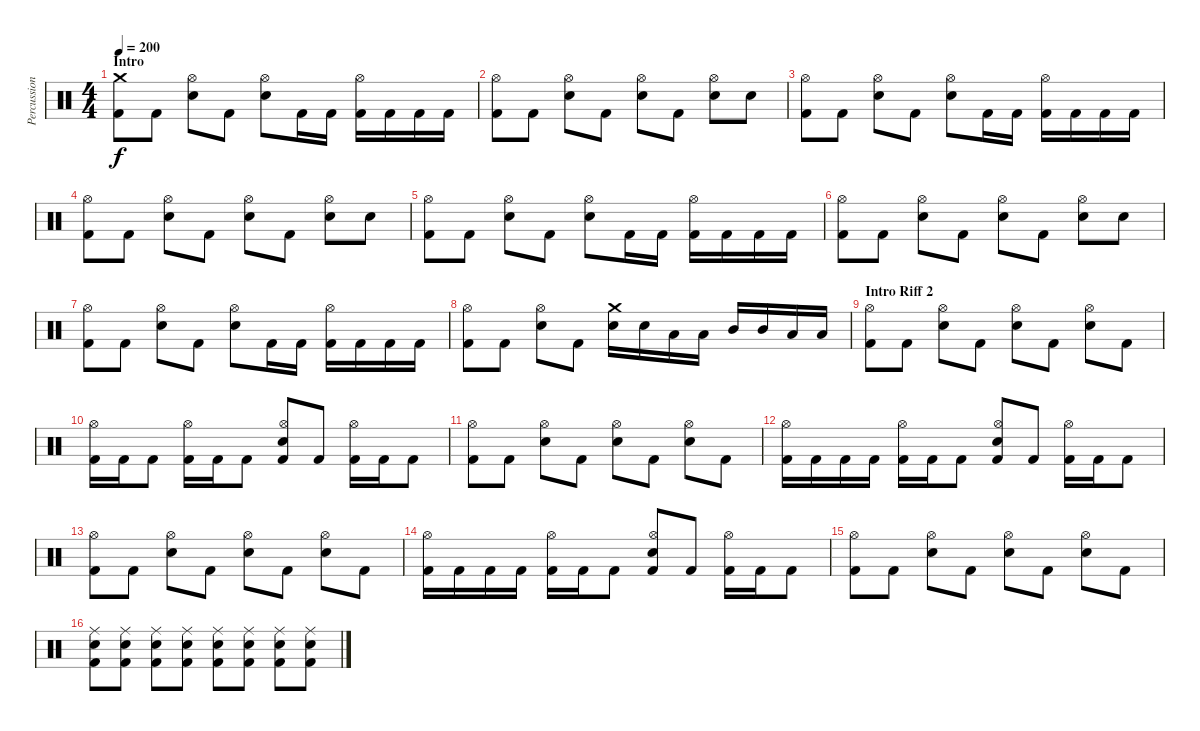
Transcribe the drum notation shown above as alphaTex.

\track ("Percussion" "Percussion") {instrument percussion}
\staff {score}
\articulation defaults
\ts (4 4)
\section ("" "Intro")
\tempo 200
\clef neutral
\ks c
("Crash medium (hit)" "Kick (hit) 2").8{dy f} "Kick (hit) 2".8 ("Hi-Hat (open)" "Electric Snare (hit)").8 "Kick (hit) 2".8 ("Hi-Hat (open)" "Electric Snare (hit)").8 "Kick (hit) 2".16 "Kick (hit) 2".16 ("Hi-Hat (open)" "Kick (hit) 2").16 "Kick (hit) 2".16 "Kick (hit) 2".16 "Kick (hit) 2".16 |
("Hi-Hat (open)" "Kick (hit) 2").8 "Kick (hit) 2".8 ("Hi-Hat (open)" "Electric Snare (hit)").8 "Kick (hit) 2".8 ("Hi-Hat (open)" "Electric Snare (hit)").8 "Kick (hit) 2".8 ("Hi-Hat (open)" "Electric Snare (hit)").8 "Electric Snare (hit)".8 |
("Hi-Hat (open)" "Kick (hit) 2").8 "Kick (hit) 2".8 ("Hi-Hat (open)" "Electric Snare (hit)").8 "Kick (hit) 2".8 ("Hi-Hat (open)" "Electric Snare (hit)").8 "Kick (hit) 2".16 "Kick (hit) 2".16 ("Hi-Hat (open)" "Kick (hit) 2").16 "Kick (hit) 2".16 "Kick (hit) 2".16 "Kick (hit) 2".16 |
("Hi-Hat (open)" "Kick (hit) 2").8 "Kick (hit) 2".8 ("Hi-Hat (open)" "Electric Snare (hit)").8 "Kick (hit) 2".8 ("Hi-Hat (open)" "Electric Snare (hit)").8 "Kick (hit) 2".8 ("Hi-Hat (open)" "Electric Snare (hit)").8 "Electric Snare (hit)".8 |
("Hi-Hat (open)" "Kick (hit) 2").8 "Kick (hit) 2".8 ("Hi-Hat (open)" "Electric Snare (hit)").8 "Kick (hit) 2".8 ("Hi-Hat (open)" "Electric Snare (hit)").8 "Kick (hit) 2".16 "Kick (hit) 2".16 ("Hi-Hat (open)" "Kick (hit) 2").16 "Kick (hit) 2".16 "Kick (hit) 2".16 "Kick (hit) 2".16 |
("Hi-Hat (open)" "Kick (hit) 2").8 "Kick (hit) 2".8 ("Hi-Hat (open)" "Electric Snare (hit)").8 "Kick (hit) 2".8 ("Hi-Hat (open)" "Electric Snare (hit)").8 "Kick (hit) 2".8 ("Hi-Hat (open)" "Electric Snare (hit)").8 "Electric Snare (hit)".8 |
("Hi-Hat (open)" "Kick (hit) 2").8 "Kick (hit) 2".8 ("Hi-Hat (open)" "Electric Snare (hit)").8 "Kick (hit) 2".8 ("Hi-Hat (open)" "Electric Snare (hit)").8 "Kick (hit) 2".16 "Kick (hit) 2".16 ("Hi-Hat (open)" "Kick (hit) 2").16 "Kick (hit) 2".16 "Kick (hit) 2".16 "Kick (hit) 2".16 |
("Hi-Hat (open)" "Kick (hit) 2").8 "Kick (hit) 2".8 ("Hi-Hat (open)" "Electric Snare (hit)").8 "Kick (hit) 2".8 ("Crash medium (hit)" "Electric Snare (hit)").16 "Electric Snare (hit)".16 "Low Tom (hit)".16 "Low Tom (hit)".16 "Mid Tom (hit)".16 "Mid Tom (hit)".16 "Low Floor Tom (hit)".16 "Low Floor Tom (hit)".16 |
\section ("" "Intro Riff 2")
("Hi-Hat (open)" "Kick (hit) 2").8 "Kick (hit) 2".8 ("Hi-Hat (open)" "Electric Snare (hit)").8 "Kick (hit) 2".8 ("Hi-Hat (open)" "Electric Snare (hit)").8 "Kick (hit) 2".8 ("Hi-Hat (open)" "Electric Snare (hit)").8 "Kick (hit) 2".8 |
("Hi-Hat (open)" "Kick (hit) 2").16 "Kick (hit) 2".16 "Kick (hit) 2".8 ("Hi-Hat (open)" "Kick (hit) 2").16 "Kick (hit) 2".16 "Kick (hit) 2".8 ("Hi-Hat (open)" "Electric Snare (hit)" "Kick (hit) 2").8 "Kick (hit) 2".8 ("Hi-Hat (open)" "Kick (hit) 2").16 "Kick (hit) 2".16 "Kick (hit) 2".8 |
("Hi-Hat (open)" "Kick (hit) 2").8 "Kick (hit) 2".8 ("Hi-Hat (open)" "Electric Snare (hit)").8 "Kick (hit) 2".8 ("Hi-Hat (open)" "Electric Snare (hit)").8 "Kick (hit) 2".8 ("Hi-Hat (open)" "Electric Snare (hit)").8 "Kick (hit) 2".8 |
("Hi-Hat (open)" "Kick (hit) 2").16 "Kick (hit) 2".16 "Kick (hit) 2".16 "Kick (hit) 2".16 ("Hi-Hat (open)" "Kick (hit) 2").16 "Kick (hit) 2".16 "Kick (hit) 2".8 ("Hi-Hat (open)" "Electric Snare (hit)" "Kick (hit) 2").8 "Kick (hit) 2".8 ("Hi-Hat (open)" "Kick (hit) 2").16 "Kick (hit) 2".16 "Kick (hit) 2".8 |
("Hi-Hat (open)" "Kick (hit) 2").8 "Kick (hit) 2".8 ("Hi-Hat (open)" "Electric Snare (hit)").8 "Kick (hit) 2".8 ("Hi-Hat (open)" "Electric Snare (hit)").8 "Kick (hit) 2".8 ("Hi-Hat (open)" "Electric Snare (hit)").8 "Kick (hit) 2".8 |
("Hi-Hat (open)" "Kick (hit) 2").16 "Kick (hit) 2".16 "Kick (hit) 2".16 "Kick (hit) 2".16 ("Hi-Hat (open)" "Kick (hit) 2").16 "Kick (hit) 2".16 "Kick (hit) 2".8 ("Hi-Hat (open)" "Electric Snare (hit)" "Kick (hit) 2").8 "Kick (hit) 2".8 ("Hi-Hat (open)" "Kick (hit) 2").16 "Kick (hit) 2".16 "Kick (hit) 2".8 |
("Hi-Hat (open)" "Kick (hit) 2").8 "Kick (hit) 2".8 ("Hi-Hat (open)" "Electric Snare (hit)").8 "Kick (hit) 2".8 ("Hi-Hat (open)" "Electric Snare (hit)").8 "Kick (hit) 2".8 ("Hi-Hat (open)" "Electric Snare (hit)").8 "Kick (hit) 2".8 |
("Ride (middle)" "Electric Snare (hit)" "Kick (hit) 2").8 ("Ride (middle)" "Electric Snare (hit)" "Kick (hit) 2").8 ("Ride (middle)" "Electric Snare (hit)" "Kick (hit) 2").8 ("Ride (middle)" "Electric Snare (hit)" "Kick (hit) 2").8 ("Ride (middle)" "Electric Snare (hit)" "Kick (hit) 2").8 ("Ride (middle)" "Electric Snare (hit)" "Kick (hit) 2").8 ("Ride (middle)" "Electric Snare (hit)" "Kick (hit) 2").8 ("Ride (middle)" "Electric Snare (hit)" "Kick (hit) 2").8
